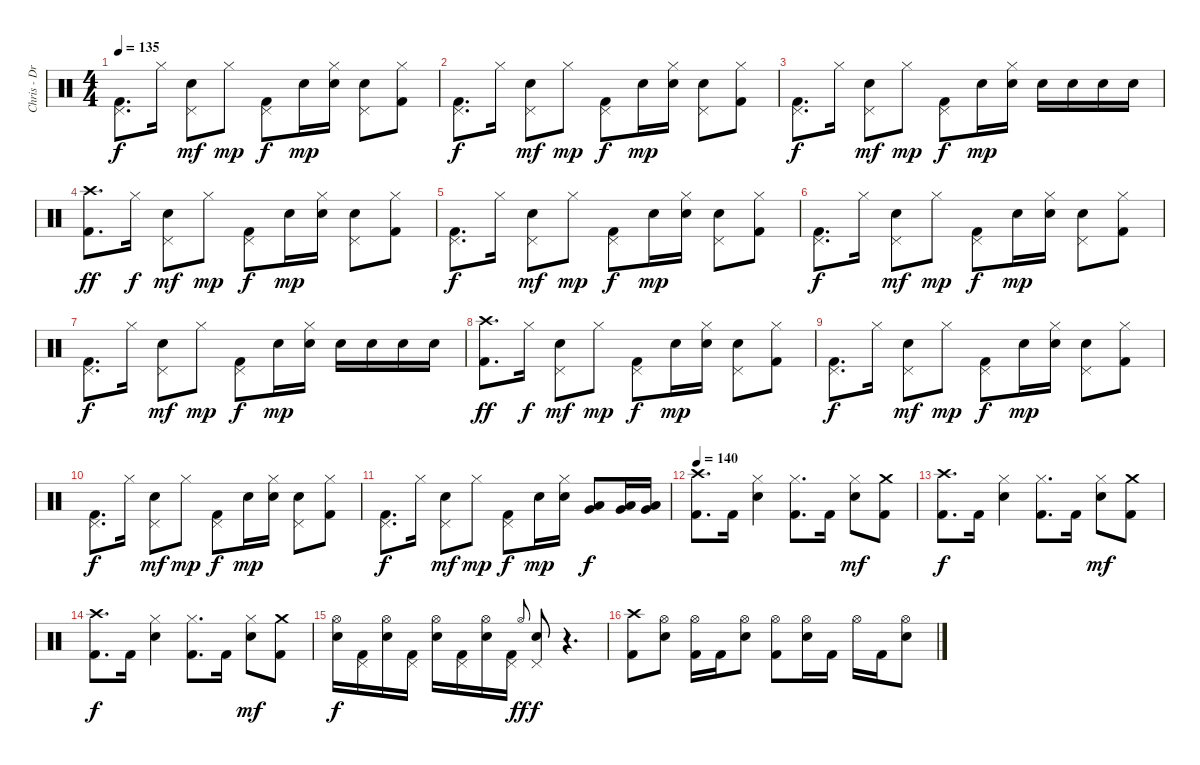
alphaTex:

\track ("Chris - Drums" "Chris - Dr") {instrument percussion}
\staff {score}
\articulation defaults
\ts (4 4)
\tempo 135
\clef neutral
\ks c
("Pedal Hi-Hat (hit)" "Kick (hit) 2").8{d dy f} "Hi-Hat (closed)".16 ("Pedal Hi-Hat (hit)" "Electric Snare (hit)").8{dy mf} "Hi-Hat (closed)".8{dy mp} ("Pedal Hi-Hat (hit)" "Kick (hit) 2").8{dy f} "Electric Snare (hit)".16{dy mp} ("Hi-Hat (closed)" "Electric Snare (hit)").16 ("Pedal Hi-Hat (hit)" "Electric Snare (hit)").8 ("Hi-Hat (closed)" "Kick (hit) 2").8 |
("Pedal Hi-Hat (hit)" "Kick (hit) 2").8{d dy f} "Hi-Hat (closed)".16 ("Pedal Hi-Hat (hit)" "Electric Snare (hit)").8{dy mf} "Hi-Hat (closed)".8{dy mp} ("Pedal Hi-Hat (hit)" "Kick (hit) 2").8{dy f} "Electric Snare (hit)".16{dy mp} ("Hi-Hat (closed)" "Electric Snare (hit)").16 ("Pedal Hi-Hat (hit)" "Electric Snare (hit)").8 ("Hi-Hat (closed)" "Kick (hit) 2").8 |
("Pedal Hi-Hat (hit)" "Kick (hit) 2").8{d dy f} "Hi-Hat (closed)".16 ("Pedal Hi-Hat (hit)" "Electric Snare (hit)").8{dy mf} "Hi-Hat (closed)".8{dy mp} ("Pedal Hi-Hat (hit)" "Kick (hit) 2").8{dy f} "Electric Snare (hit)".16{dy mp} ("Hi-Hat (closed)" "Electric Snare (hit)").16 "Electric Snare (hit)".16 "Electric Snare (hit)".16 "Electric Snare (hit)".16 "Electric Snare (hit)".16 |
("Crash high (hit)" "Kick (hit) 2").8{d dy ff} "Hi-Hat (closed)".16{dy f} ("Pedal Hi-Hat (hit)" "Electric Snare (hit)").8{dy mf} "Hi-Hat (closed)".8{dy mp} ("Pedal Hi-Hat (hit)" "Kick (hit) 2").8{dy f} "Electric Snare (hit)".16{dy mp} ("Hi-Hat (closed)" "Electric Snare (hit)").16 ("Pedal Hi-Hat (hit)" "Electric Snare (hit)").8 ("Hi-Hat (closed)" "Kick (hit) 2").8 |
("Pedal Hi-Hat (hit)" "Kick (hit) 2").8{d dy f} "Hi-Hat (closed)".16 ("Pedal Hi-Hat (hit)" "Electric Snare (hit)").8{dy mf} "Hi-Hat (closed)".8{dy mp} ("Pedal Hi-Hat (hit)" "Kick (hit) 2").8{dy f} "Electric Snare (hit)".16{dy mp} ("Hi-Hat (closed)" "Electric Snare (hit)").16 ("Pedal Hi-Hat (hit)" "Electric Snare (hit)").8 ("Hi-Hat (closed)" "Kick (hit) 2").8 |
("Pedal Hi-Hat (hit)" "Kick (hit) 2").8{d dy f} "Hi-Hat (closed)".16 ("Pedal Hi-Hat (hit)" "Electric Snare (hit)").8{dy mf} "Hi-Hat (closed)".8{dy mp} ("Pedal Hi-Hat (hit)" "Kick (hit) 2").8{dy f} "Electric Snare (hit)".16{dy mp} ("Hi-Hat (closed)" "Electric Snare (hit)").16 ("Pedal Hi-Hat (hit)" "Electric Snare (hit)").8 ("Hi-Hat (closed)" "Kick (hit) 2").8 |
("Pedal Hi-Hat (hit)" "Kick (hit) 2").8{d dy f} "Hi-Hat (closed)".16 ("Pedal Hi-Hat (hit)" "Electric Snare (hit)").8{dy mf} "Hi-Hat (closed)".8{dy mp} ("Pedal Hi-Hat (hit)" "Kick (hit) 2").8{dy f} "Electric Snare (hit)".16{dy mp} ("Hi-Hat (closed)" "Electric Snare (hit)").16 "Electric Snare (hit)".16 "Electric Snare (hit)".16 "Electric Snare (hit)".16 "Electric Snare (hit)".16 |
("Crash high (hit)" "Kick (hit) 2").8{d dy ff} "Hi-Hat (closed)".16{dy f} ("Pedal Hi-Hat (hit)" "Electric Snare (hit)").8{dy mf} "Hi-Hat (closed)".8{dy mp} ("Pedal Hi-Hat (hit)" "Kick (hit) 2").8{dy f} "Electric Snare (hit)".16{dy mp} ("Hi-Hat (closed)" "Electric Snare (hit)").16 ("Pedal Hi-Hat (hit)" "Electric Snare (hit)").8 ("Hi-Hat (closed)" "Kick (hit) 2").8 |
("Pedal Hi-Hat (hit)" "Kick (hit) 2").8{d dy f} "Hi-Hat (closed)".16 ("Pedal Hi-Hat (hit)" "Electric Snare (hit)").8{dy mf} "Hi-Hat (closed)".8{dy mp} ("Pedal Hi-Hat (hit)" "Kick (hit) 2").8{dy f} "Electric Snare (hit)".16{dy mp} ("Hi-Hat (closed)" "Electric Snare (hit)").16 ("Pedal Hi-Hat (hit)" "Electric Snare (hit)").8 ("Hi-Hat (closed)" "Kick (hit) 2").8 |
("Pedal Hi-Hat (hit)" "Kick (hit) 2").8{d dy f} "Hi-Hat (closed)".16 ("Pedal Hi-Hat (hit)" "Electric Snare (hit)").8{dy mf} "Hi-Hat (closed)".8{dy mp} ("Pedal Hi-Hat (hit)" "Kick (hit) 2").8{dy f} "Electric Snare (hit)".16{dy mp} ("Hi-Hat (closed)" "Electric Snare (hit)").16 ("Pedal Hi-Hat (hit)" "Electric Snare (hit)").8 ("Hi-Hat (closed)" "Kick (hit) 2").8 |
("Pedal Hi-Hat (hit)" "Kick (hit) 2").8{d dy f} "Hi-Hat (closed)".16 ("Pedal Hi-Hat (hit)" "Electric Snare (hit)").8{dy mf} "Hi-Hat (closed)".8{dy mp} ("Pedal Hi-Hat (hit)" "Kick (hit) 2").8{dy f} "Electric Snare (hit)".16{dy mp} ("Hi-Hat (closed)" "Electric Snare (hit)").16 ("Low Tom (hit)" "Very Low Tom (hit)").8{dy f} ("Low Tom (hit)" "Very Low Tom (hit)").16 ("Low Tom (hit)" "Very Low Tom (hit)").16 |
\tempo 140
("Crash high (hit)" "Kick (hit) 2").8{d} "Kick (hit) 2".16 ("Hi-Hat (closed)" "Electric Snare (hit)").4 ("Hi-Hat (closed)" "Kick (hit) 2").8{d} "Kick (hit) 2".16 ("Hi-Hat (closed)" "Electric Snare (hit)").8{dy mf} ("Crash medium (hit)" "Kick (hit) 2").8 |
("Crash high (hit)" "Kick (hit) 2").8{d dy f} "Kick (hit) 2".16 ("Hi-Hat (closed)" "Electric Snare (hit)").4 ("Hi-Hat (closed)" "Kick (hit) 2").8{d} "Kick (hit) 2".16 ("Hi-Hat (closed)" "Electric Snare (hit)").8{dy mf} ("Crash medium (hit)" "Kick (hit) 2").8 |
("Crash high (hit)" "Kick (hit) 2").8{d dy f} "Kick (hit) 2".16 ("Hi-Hat (closed)" "Electric Snare (hit)").4 ("Hi-Hat (closed)" "Kick (hit) 2").8{d} "Kick (hit) 2".16 ("Hi-Hat (closed)" "Electric Snare (hit)").8{dy mf} ("Crash medium (hit)" "Kick (hit) 2").8 |
("Hi-Hat (open)" "Electric Snare (hit)").16{dy f} ("Pedal Hi-Hat (hit)" "Kick (hit) 2").16 ("Hi-Hat (open)" "Electric Snare (hit)").16 ("Pedal Hi-Hat (hit)" "Kick (hit) 2").16 ("Hi-Hat (open)" "Electric Snare (hit)").16 ("Pedal Hi-Hat (hit)" "Kick (hit) 2").16 ("Hi-Hat (open)" "Electric Snare (hit)").16 ("Pedal Hi-Hat (hit)" "Kick (hit) 2").16 "Hi-Hat (open)".8{gr onbeat dy ff} ("Pedal Hi-Hat (hit)" "Electric Snare (hit)").8{dy f} r.4{d} |
("Crash high (hit)" "Kick (hit) 2").8 ("Hi-Hat (open)" "Electric Snare (hit)").8 ("Hi-Hat (open)" "Kick (hit) 2").16 "Kick (hit) 2".16 ("Hi-Hat (open)" "Electric Snare (hit)").8 ("Hi-Hat (open)" "Kick (hit) 2").8 ("Hi-Hat (open)" "Electric Snare (hit)").16 "Kick (hit) 2".16 "Hi-Hat (open)".16 "Kick (hit) 2".16 ("Hi-Hat (open)" "Electric Snare (hit)").8
